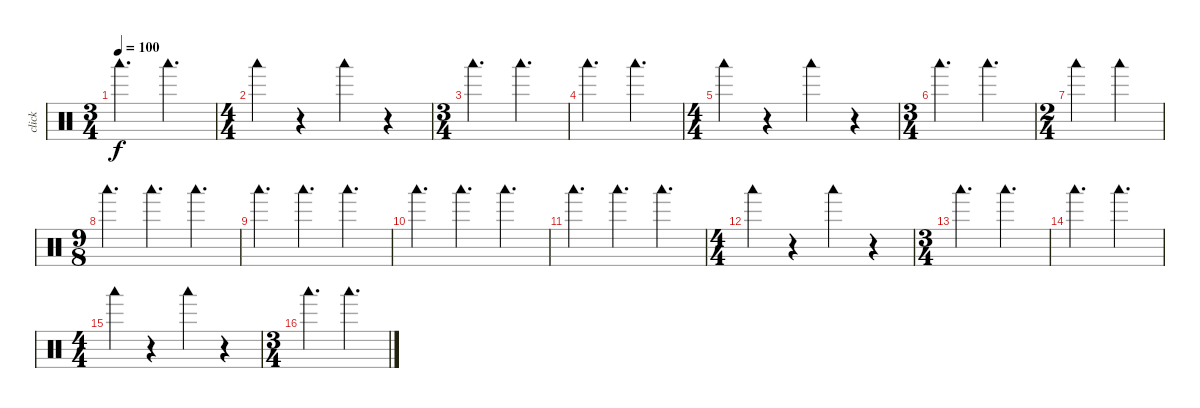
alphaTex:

\track ("click" "click") {mute instrument percussion}
\staff {score}
\articulation defaults
\ts (3 4)
\tempo 100
\clef neutral
\ks c "Woodblock low (hit)".4{d dy f} "Woodblock low (hit)".4{d}
|
\ts (4 4)
"Woodblock low (hit)".4 r.4 "Woodblock low (hit)".4 r.4 |
\ts (3 4)
"Woodblock low (hit)".4{d} "Woodblock low (hit)".4{d} |
"Woodblock low (hit)".4{d} "Woodblock low (hit)".4{d} |
\ts (4 4)
"Woodblock low (hit)".4 r.4 "Woodblock low (hit)".4 r.4 |
\ts (3 4)
"Woodblock low (hit)".4{d} "Woodblock low (hit)".4{d} |
\ts (2 4)
"Woodblock low (hit)".4 "Woodblock low (hit)".4 |
\ts (9 8)
"Woodblock low (hit)".4{d} "Woodblock low (hit)".4{d} "Woodblock low (hit)".4{d} |
"Woodblock low (hit)".4{d} "Woodblock low (hit)".4{d} "Woodblock low (hit)".4{d} |
"Woodblock low (hit)".4{d} "Woodblock low (hit)".4{d} "Woodblock low (hit)".4{d} |
"Woodblock low (hit)".4{d} "Woodblock low (hit)".4{d} "Woodblock low (hit)".4{d} |
\ts (4 4)
"Woodblock low (hit)".4 r.4 "Woodblock low (hit)".4 r.4 |
\ts (3 4)
"Woodblock low (hit)".4{d} "Woodblock low (hit)".4{d} |
"Woodblock low (hit)".4{d} "Woodblock low (hit)".4{d} |
\ts (4 4)
"Woodblock low (hit)".4 r.4 "Woodblock low (hit)".4 r.4 |
\ts (3 4)
"Woodblock low (hit)".4{d} "Woodblock low (hit)".4{d}
